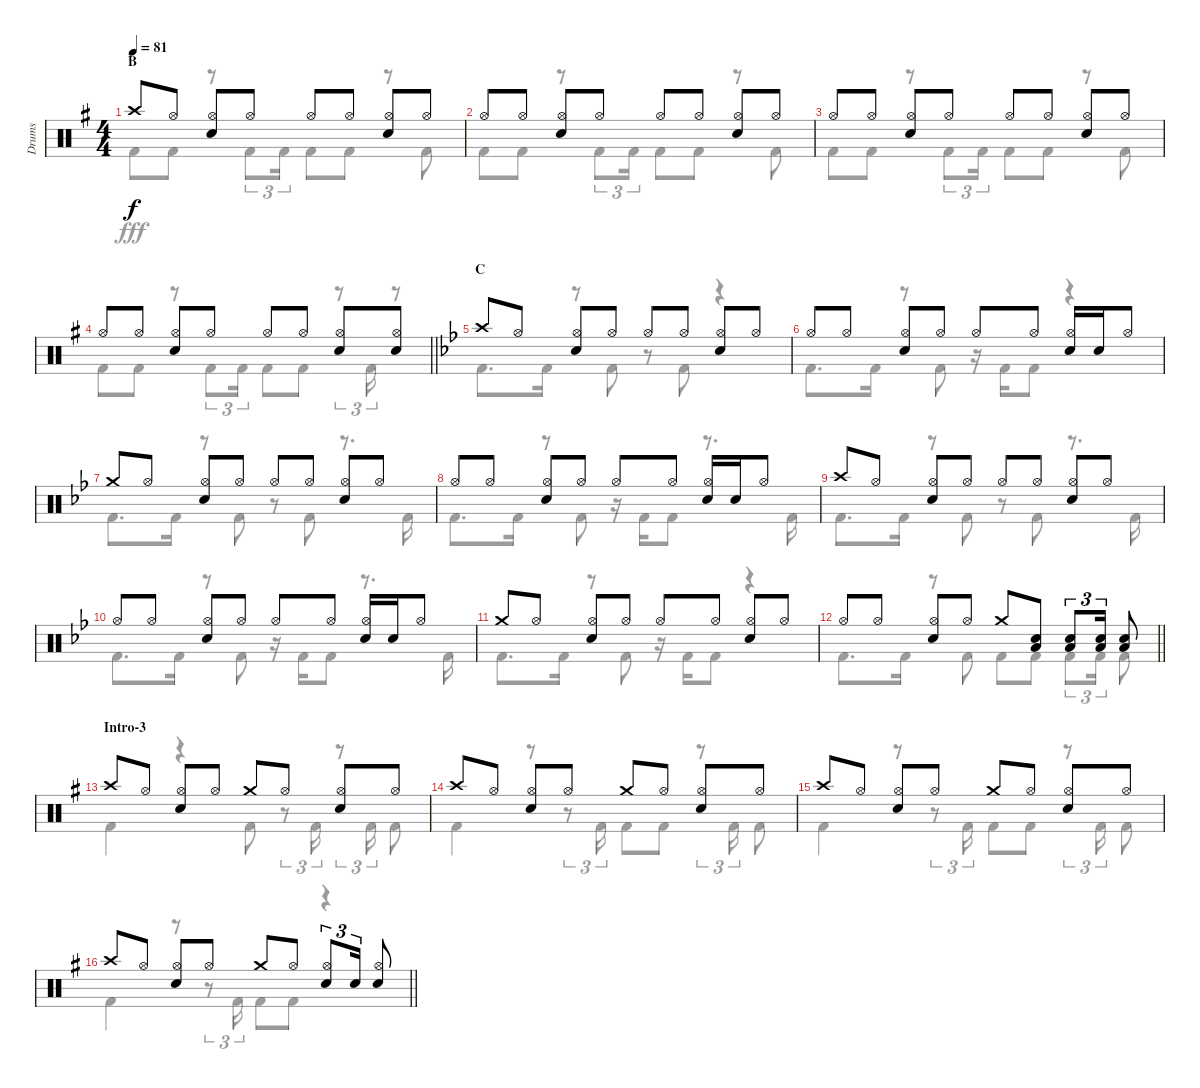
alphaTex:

\track ("Drums" "Drums") {instrument percussion}
\staff {score}
\articulation defaults
\voice
\ts (4 4)
\section ("" "B")
\tempo 81
\clef neutral
\ks g "Crash high (hit)".8{dy f} "Hi-Hat (open)".8
("Hi-Hat (open)" "Snare (hit) 2").8 "Hi-Hat (open)".8 "Hi-Hat (open)".8 "Hi-Hat (open)".8 ("Hi-Hat (open)" "Snare (hit) 2").8 "Hi-Hat (open)".8 |
"Hi-Hat (open)".8 "Hi-Hat (open)".8 ("Hi-Hat (open)" "Snare (hit) 2").8 "Hi-Hat (open)".8 "Hi-Hat (open)".8 "Hi-Hat (open)".8 ("Hi-Hat (open)" "Snare (hit) 2").8 "Hi-Hat (open)".8 |
"Hi-Hat (open)".8 "Hi-Hat (open)".8 ("Hi-Hat (open)" "Snare (hit) 2").8 "Hi-Hat (open)".8 "Hi-Hat (open)".8 "Hi-Hat (open)".8 ("Hi-Hat (open)" "Snare (hit) 2").8 "Hi-Hat (open)".8 |
\barLineRight lightlight "Hi-Hat (open)".8 "Hi-Hat (open)".8
("Hi-Hat (open)" "Snare (hit) 2").8 "Hi-Hat (open)".8 "Hi-Hat (open)".8 "Hi-Hat (open)".8 ("Hi-Hat (open)" "Snare (hit) 2").8 ("Hi-Hat (open)" "Snare (hit) 2").8 |
\section ("" "C")
\ks bb "Crash high (hit)".8 "Hi-Hat (open)".8
("Hi-Hat (open)" "Snare (hit) 2").8 "Hi-Hat (open)".8 "Hi-Hat (open)".8 "Hi-Hat (open)".8 ("Hi-Hat (open)" "Snare (hit) 2").8 "Hi-Hat (open)".8 |
"Hi-Hat (open)".8 "Hi-Hat (open)".8 ("Hi-Hat (open)" "Snare (hit) 2").8 "Hi-Hat (open)".8 "Hi-Hat (open)".8 "Hi-Hat (open)".8 ("Hi-Hat (open)" "Snare (hit) 2").16 "Snare (hit) 2".16 "Hi-Hat (open)".8 |
"Crash medium (hit)".8 "Hi-Hat (open)".8 ("Hi-Hat (open)" "Snare (hit) 2").8 "Hi-Hat (open)".8 "Hi-Hat (open)".8 "Hi-Hat (open)".8 ("Hi-Hat (open)" "Snare (hit) 2").8 "Hi-Hat (open)".8 |
"Hi-Hat (open)".8 "Hi-Hat (open)".8 ("Hi-Hat (open)" "Snare (hit) 2").8 "Hi-Hat (open)".8 "Hi-Hat (open)".8 "Hi-Hat (open)".8 ("Hi-Hat (open)" "Snare (hit) 2").16 "Snare (hit) 2".16 "Hi-Hat (open)".8 |
"Crash high (hit)".8 "Hi-Hat (open)".8 ("Hi-Hat (open)" "Snare (hit) 2").8 "Hi-Hat (open)".8 "Hi-Hat (open)".8 "Hi-Hat (open)".8 ("Hi-Hat (open)" "Snare (hit) 2").8 "Hi-Hat (open)".8 |
"Hi-Hat (open)".8 "Hi-Hat (open)".8 ("Hi-Hat (open)" "Snare (hit) 2").8 "Hi-Hat (open)".8 "Hi-Hat (open)".8 "Hi-Hat (open)".8 ("Hi-Hat (open)" "Snare (hit) 2").16 "Snare (hit) 2".16 "Hi-Hat (open)".8 |
"Crash medium (hit)".8 "Hi-Hat (open)".8 ("Hi-Hat (open)" "Snare (hit) 2").8 "Hi-Hat (open)".8 "Hi-Hat (open)".8 "Hi-Hat (open)".8 ("Hi-Hat (open)" "Snare (hit) 2").8 "Hi-Hat (open)".8 |
\barLineRight lightlight "Hi-Hat (open)".8 "Hi-Hat (open)".8
("Hi-Hat (open)" "Snare (hit) 2").8 "Hi-Hat (open)".8 "Crash medium (hit)".8 ("Low Tom (hit)" "Snare (hit) 2").8 ("Low Tom (hit)" "Snare (hit) 2").8{tu (3 2)} ("Low Tom (hit)" "Snare (hit) 2").16{tu (3 2)} ("Low Tom (hit)" "Snare (hit) 2").8 |
\section ("" "Intro-3")
\ks g "Crash high (hit)".8 "Hi-Hat (open)".8
("Hi-Hat (open)" "Snare (hit) 2").8 "Hi-Hat (open)".8 "Crash medium (hit)".8 "Hi-Hat (open)".8 ("Hi-Hat (open)" "Snare (hit) 2").8 "Hi-Hat (open)".8 |
"Crash high (hit)".8 "Hi-Hat (open)".8 ("Hi-Hat (open)" "Snare (hit) 2").8 "Hi-Hat (open)".8 "Crash medium (hit)".8 "Hi-Hat (open)".8 ("Hi-Hat (open)" "Snare (hit) 2").8 "Hi-Hat (open)".8 |
"Crash high (hit)".8 "Hi-Hat (open)".8 ("Hi-Hat (open)" "Snare (hit) 2").8 "Hi-Hat (open)".8 "Crash medium (hit)".8 "Hi-Hat (open)".8 ("Hi-Hat (open)" "Snare (hit) 2").8 "Hi-Hat (open)".8 |
\barLineRight lightlight "Crash high (hit)".8 "Hi-Hat (open)".8
("Hi-Hat (open)" "Snare (hit) 2").8 "Hi-Hat (open)".8 "Crash medium (hit)".8 "Hi-Hat (open)".8 ("Hi-Hat (open)" "Snare (hit) 2").8{tu (3 2)} "Snare (hit) 2".16{tu (3 2)} ("Hi-Hat (open)" "Snare (hit) 2").8
\voice
\clef neutral
\ottava regular
\simile none
\ks g "Kick (hit) 2".8{dy fff} "Kick (hit) 2".8
r.8 "Kick (hit) 2".8{tu (3 2)} "Kick (hit) 2".16{tu (3 2)} "Kick (hit) 2".8 "Kick (hit) 2".8 r.8 "Kick (hit) 2".8 |
"Kick (hit) 2".8 "Kick (hit) 2".8 r.8 "Kick (hit) 2".8{tu (3 2)} "Kick (hit) 2".16{tu (3 2)} "Kick (hit) 2".8 "Kick (hit) 2".8 r.8 "Kick (hit) 2".8 |
"Kick (hit) 2".8 "Kick (hit) 2".8 r.8 "Kick (hit) 2".8{tu (3 2)} "Kick (hit) 2".16{tu (3 2)} "Kick (hit) 2".8 "Kick (hit) 2".8 r.8 "Kick (hit) 2".8 |
\barLineRight lightlight "Kick (hit) 2".8 "Kick (hit) 2".8
r.8 "Kick (hit) 2".8{tu (3 2)} "Kick (hit) 2".16{tu (3 2)} "Kick (hit) 2".8 "Kick (hit) 2".8 r.8{tu (3 2)} "Kick (hit) 2".16{tu (3 2)} r.8 |
\ks bb "Kick (hit) 2".8{d} "Kick (hit) 2".16
r.8 "Kick (hit) 2".8 r.8 "Kick (hit) 2".8 r.4 |
"Kick (hit) 2".8{d} "Kick (hit) 2".16 r.8 "Kick (hit) 2".8 r.16 "Kick (hit) 2".16 "Kick (hit) 2".8 r.4 |
"Kick (hit) 2".8{d} "Kick (hit) 2".16 r.8 "Kick (hit) 2".8 r.8 "Kick (hit) 2".8 r.8{d} "Kick (hit) 2".16 |
"Kick (hit) 2".8{d} "Kick (hit) 2".16 r.8 "Kick (hit) 2".8 r.16 "Kick (hit) 2".16 "Kick (hit) 2".8 r.8{d} "Kick (hit) 2".16 |
"Kick (hit) 2".8{d} "Kick (hit) 2".16 r.8 "Kick (hit) 2".8 r.8 "Kick (hit) 2".8 r.8{d} "Kick (hit) 2".16 |
"Kick (hit) 2".8{d} "Kick (hit) 2".16 r.8 "Kick (hit) 2".8 r.16 "Kick (hit) 2".16 "Kick (hit) 2".8 r.8{d} "Kick (hit) 2".16 |
"Kick (hit) 2".8{d} "Kick (hit) 2".16 r.8 "Kick (hit) 2".8 r.16 "Kick (hit) 2".16 "Kick (hit) 2".8 r.4 |
\barLineRight lightlight "Kick (hit) 2".8{d} "Kick (hit) 2".16
r.8 "Kick (hit) 2".8 "Kick (hit) 2".8 "Kick (hit) 2".8 "Kick (hit) 2".8{tu (3 2)} "Kick (hit) 2".16{tu (3 2)} "Kick (hit) 2".8 |
\ks g "Kick (hit) 2".4
r.4 "Kick (hit) 2".8 r.8{tu (3 2)} "Kick (hit) 2".16{tu (3 2)} r.8{tu (3 2)} "Kick (hit) 2".16{tu (3 2)} "Kick (hit) 2".8 |
"Kick (hit) 2".4 r.8 r.8{tu (3 2)} "Kick (hit) 2".16{tu (3 2)} "Kick (hit) 2".8 "Kick (hit) 2".8 r.8{tu (3 2)} "Kick (hit) 2".16{tu (3 2)} "Kick (hit) 2".8 |
"Kick (hit) 2".4 r.8 r.8{tu (3 2)} "Kick (hit) 2".16{tu (3 2)} "Kick (hit) 2".8 "Kick (hit) 2".8 r.8{tu (3 2)} "Kick (hit) 2".16{tu (3 2)} "Kick (hit) 2".8 |
\barLineRight lightlight "Kick (hit) 2".4
r.8 r.8{tu (3 2)} "Kick (hit) 2".16{tu (3 2)} "Kick (hit) 2".8 "Kick (hit) 2".8 r.4
